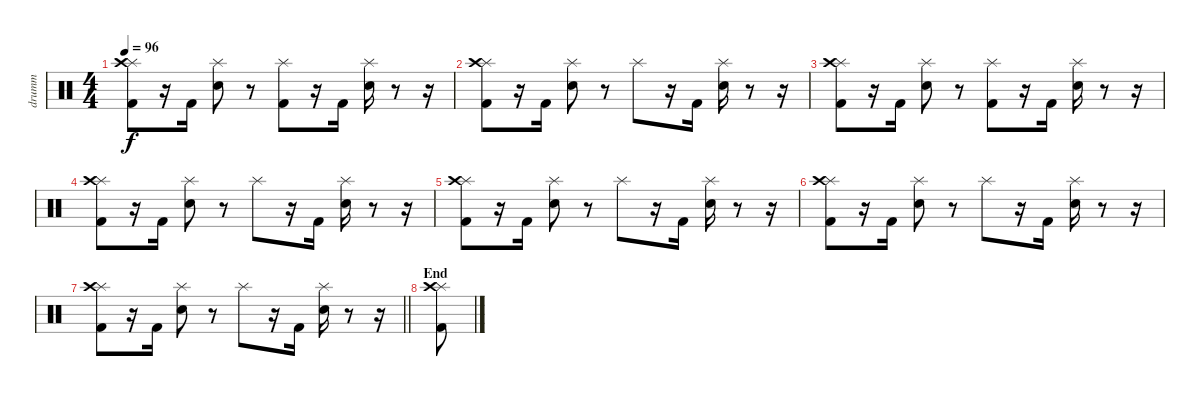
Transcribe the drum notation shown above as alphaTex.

\track ("drumm" "drumm") {instrument percussion}
\staff {score}
\articulation defaults
\ts (4 4)
\tempo 96
\clef neutral
\ks c
("Splash (hit)" "Crash high (hit)" "Kick (hit) 2").8{dy f} r.16 "Kick (hit) 2".16 ("Splash (hit)" "Electric Snare (hit)").8 r.8 ("Splash (hit)" "Kick (hit) 2").8 r.16 "Kick (hit) 2".16 ("Splash (hit)" "Electric Snare (hit)").16 r.8 r.16 |
("Splash (hit)" "Crash high (hit)" "Kick (hit) 2").8 r.16 "Kick (hit) 2".16 ("Splash (hit)" "Electric Snare (hit)").8 r.8 "Splash (hit)".8 r.16 "Kick (hit) 2".16 ("Splash (hit)" "Electric Snare (hit)").16 r.8 r.16 |
("Splash (hit)" "Crash high (hit)" "Kick (hit) 2").8 r.16 "Kick (hit) 2".16 ("Splash (hit)" "Electric Snare (hit)").8 r.8 ("Splash (hit)" "Kick (hit) 2").8 r.16 "Kick (hit) 2".16 ("Splash (hit)" "Electric Snare (hit)").16 r.8 r.16 |
("Splash (hit)" "Crash high (hit)" "Kick (hit) 2").8 r.16 "Kick (hit) 2".16 ("Splash (hit)" "Electric Snare (hit)").8 r.8 "Splash (hit)".8 r.16 "Kick (hit) 2".16 ("Splash (hit)" "Electric Snare (hit)").16 r.8 r.16 |
("Splash (hit)" "Crash high (hit)" "Kick (hit) 2").8 r.16 "Kick (hit) 2".16 ("Splash (hit)" "Electric Snare (hit)").8 r.8 "Splash (hit)".8 r.16 "Kick (hit) 2".16 ("Splash (hit)" "Electric Snare (hit)").16 r.8 r.16 |
("Splash (hit)" "Crash high (hit)" "Kick (hit) 2").8 r.16 "Kick (hit) 2".16 ("Splash (hit)" "Electric Snare (hit)").8 r.8 "Splash (hit)".8 r.16 "Kick (hit) 2".16 ("Splash (hit)" "Electric Snare (hit)").16 r.8 r.16 |
\barLineRight lightlight
("Splash (hit)" "Crash high (hit)" "Kick (hit) 2").8 r.16 "Kick (hit) 2".16 ("Splash (hit)" "Electric Snare (hit)").8 r.8 "Splash (hit)".8 r.16 "Kick (hit) 2".16 ("Splash (hit)" "Electric Snare (hit)").16 r.8 r.16 |
\section ("" "End")
("Splash (hit)" "Crash high (hit)" "Kick (hit) 2").8
